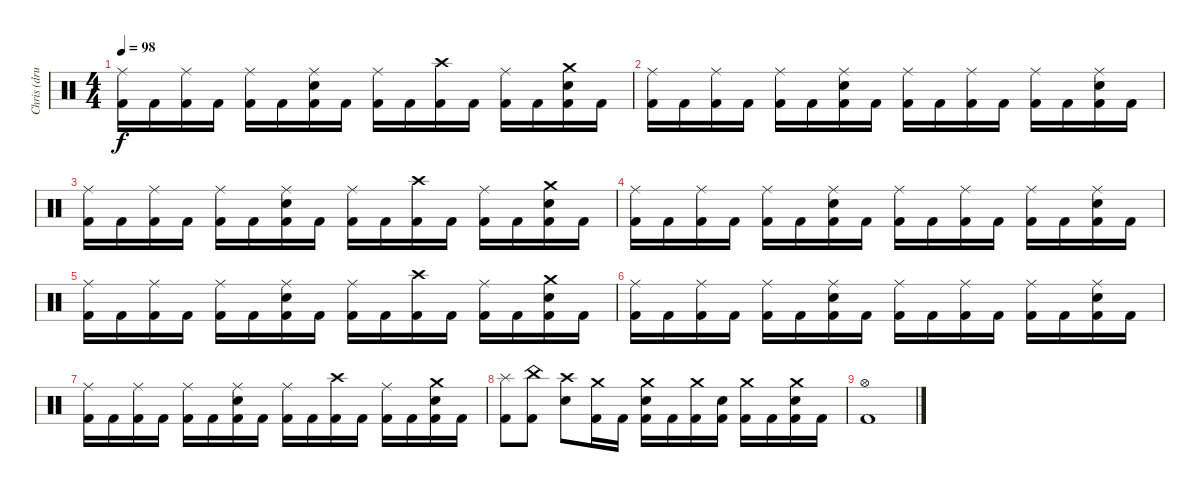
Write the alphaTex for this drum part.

\track ("Chris (drums)" "Chris (dru") {instrument percussion}
\staff {score}
\articulation defaults
\ts (4 4)
\tempo 98
\clef neutral
\ks c
("Ride (middle)" "Kick (hit) 2").16{dy f} "Kick (hit) 2".16 ("Ride (middle)" "Kick (hit) 2").16 "Kick (hit) 2".16 ("Ride (middle)" "Kick (hit) 2").16 "Kick (hit) 2".16 ("Ride (middle)" "Electric Snare (hit)" "Kick (hit) 2").16 "Kick (hit) 2".16 ("Ride (middle)" "Kick (hit) 2").16 "Kick (hit) 2".16 ("Crash high (hit)" "Kick (hit) 2").16 "Kick (hit) 2".16 ("Ride (middle)" "Kick (hit) 2").16 "Kick (hit) 2".16 ("Crash medium (hit)" "Electric Snare (hit)" "Kick (hit) 2").16 "Kick (hit) 2".16 |
("Ride (middle)" "Kick (hit) 2").16 "Kick (hit) 2".16 ("Ride (middle)" "Kick (hit) 2").16 "Kick (hit) 2".16 ("Ride (middle)" "Kick (hit) 2").16 "Kick (hit) 2".16 ("Ride (middle)" "Electric Snare (hit)" "Kick (hit) 2").16 "Kick (hit) 2".16 ("Ride (middle)" "Kick (hit) 2").16 "Kick (hit) 2".16 ("Ride (middle)" "Kick (hit) 2").16 "Kick (hit) 2".16 ("Ride (middle)" "Kick (hit) 2").16 "Kick (hit) 2".16 ("Ride (middle)" "Electric Snare (hit)" "Kick (hit) 2").16 "Kick (hit) 2".16 |
("Ride (middle)" "Kick (hit) 2").16 "Kick (hit) 2".16 ("Ride (middle)" "Kick (hit) 2").16 "Kick (hit) 2".16 ("Ride (middle)" "Kick (hit) 2").16 "Kick (hit) 2".16 ("Ride (middle)" "Electric Snare (hit)" "Kick (hit) 2").16 "Kick (hit) 2".16 ("Ride (middle)" "Kick (hit) 2").16 "Kick (hit) 2".16 ("Crash high (hit)" "Kick (hit) 2").16 "Kick (hit) 2".16 ("Ride (middle)" "Kick (hit) 2").16 "Kick (hit) 2".16 ("Crash medium (hit)" "Electric Snare (hit)" "Kick (hit) 2").16 "Kick (hit) 2".16 |
("Ride (middle)" "Kick (hit) 2").16 "Kick (hit) 2".16 ("Ride (middle)" "Kick (hit) 2").16 "Kick (hit) 2".16 ("Ride (middle)" "Kick (hit) 2").16 "Kick (hit) 2".16 ("Ride (middle)" "Electric Snare (hit)" "Kick (hit) 2").16 "Kick (hit) 2".16 ("Ride (middle)" "Kick (hit) 2").16 "Kick (hit) 2".16 ("Ride (middle)" "Kick (hit) 2").16 "Kick (hit) 2".16 ("Ride (middle)" "Kick (hit) 2").16 "Kick (hit) 2".16 ("Ride (middle)" "Electric Snare (hit)" "Kick (hit) 2").16 "Kick (hit) 2".16 |
("Ride (middle)" "Kick (hit) 2").16 "Kick (hit) 2".16 ("Ride (middle)" "Kick (hit) 2").16 "Kick (hit) 2".16 ("Ride (middle)" "Kick (hit) 2").16 "Kick (hit) 2".16 ("Ride (middle)" "Electric Snare (hit)" "Kick (hit) 2").16 "Kick (hit) 2".16 ("Ride (middle)" "Kick (hit) 2").16 "Kick (hit) 2".16 ("Crash high (hit)" "Kick (hit) 2").16 "Kick (hit) 2".16 ("Ride (middle)" "Kick (hit) 2").16 "Kick (hit) 2".16 ("Crash medium (hit)" "Electric Snare (hit)" "Kick (hit) 2").16 "Kick (hit) 2".16 |
("Ride (middle)" "Kick (hit) 2").16 "Kick (hit) 2".16 ("Ride (middle)" "Kick (hit) 2").16 "Kick (hit) 2".16 ("Ride (middle)" "Kick (hit) 2").16 "Kick (hit) 2".16 ("Ride (middle)" "Electric Snare (hit)" "Kick (hit) 2").16 "Kick (hit) 2".16 ("Ride (middle)" "Kick (hit) 2").16 "Kick (hit) 2".16 ("Ride (middle)" "Kick (hit) 2").16 "Kick (hit) 2".16 ("Ride (middle)" "Kick (hit) 2").16 "Kick (hit) 2".16 ("Ride (middle)" "Electric Snare (hit)" "Kick (hit) 2").16 "Kick (hit) 2".16 |
("Ride (middle)" "Kick (hit) 2").16 "Kick (hit) 2".16 ("Ride (middle)" "Kick (hit) 2").16 "Kick (hit) 2".16 ("Ride (middle)" "Kick (hit) 2").16 "Kick (hit) 2".16 ("Ride (middle)" "Electric Snare (hit)" "Kick (hit) 2").16 "Kick (hit) 2".16 ("Ride (middle)" "Kick (hit) 2").16 "Kick (hit) 2".16 ("Crash high (hit)" "Kick (hit) 2").16 "Kick (hit) 2".16 ("Ride (middle)" "Kick (hit) 2").16 "Kick (hit) 2".16 ("Crash medium (hit)" "Electric Snare (hit)" "Kick (hit) 2").16 "Kick (hit) 2".16 |
("Splash (hit)" "Kick (hit) 2").8 ("China (hit)" "Kick (hit) 2").8 ("Crash high (hit)" "Electric Snare (hit)").8 ("Crash medium (hit)" "Kick (hit) 2").16 "Kick (hit) 2".16 ("Crash medium (hit)" "Electric Snare (hit)" "Kick (hit) 2").16 "Kick (hit) 2".16 ("Crash medium (hit)" "Kick (hit) 2").16 ("Electric Snare (hit)" "Kick (hit) 2").16 ("Crash medium (hit)" "Kick (hit) 2").16 "Kick (hit) 2".16 ("Crash medium (hit)" "Electric Snare (hit)" "Kick (hit) 2").16 "Kick (hit) 2".16 |
("Hi-Hat (open)" "Kick (hit) 2").1
